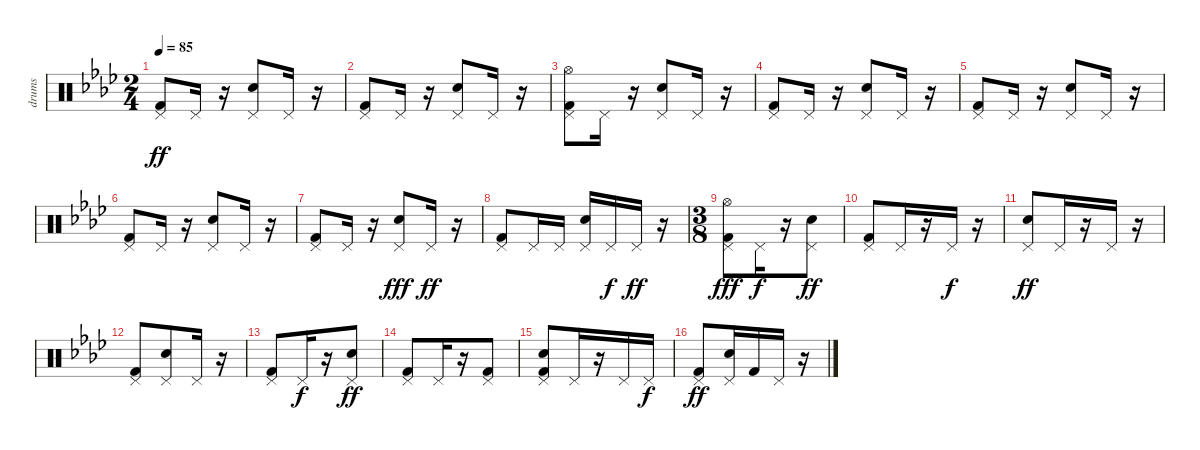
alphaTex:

\track ("drums" "drums") {instrument percussion}
\staff {score}
\articulation defaults
\ts (2 4)
\tempo 85
\clef neutral
\ks fminor
("Kick (hit) 2" "Pedal Hi-Hat (hit)").8{dy ff} "Pedal Hi-Hat (hit)".16 r.16 ("Electric Snare (hit)" "Pedal Hi-Hat (hit)").8 "Pedal Hi-Hat (hit)".16 r.16 |
("Pedal Hi-Hat (hit)" "Kick (hit) 2").8 "Pedal Hi-Hat (hit)".16 r.16 ("Pedal Hi-Hat (hit)" "Electric Snare (hit)").8 "Pedal Hi-Hat (hit)".16 r.16 |
("Hi-Hat (open)" "Kick (hit) 2" "Pedal Hi-Hat (hit)").8 "Pedal Hi-Hat (hit)".16 r.16 ("Electric Snare (hit)" "Pedal Hi-Hat (hit)").8 "Pedal Hi-Hat (hit)".16 r.16 |
("Kick (hit) 2" "Pedal Hi-Hat (hit)").8 "Pedal Hi-Hat (hit)".16 r.16 ("Electric Snare (hit)" "Pedal Hi-Hat (hit)").8 "Pedal Hi-Hat (hit)".16 r.16 |
("Pedal Hi-Hat (hit)" "Kick (hit) 2").8 "Pedal Hi-Hat (hit)".16 r.16 ("Pedal Hi-Hat (hit)" "Electric Snare (hit)").8 "Pedal Hi-Hat (hit)".16 r.16 |
("Kick (hit) 2" "Pedal Hi-Hat (hit)").8 "Pedal Hi-Hat (hit)".16 r.16 ("Electric Snare (hit)" "Pedal Hi-Hat (hit)").8 "Pedal Hi-Hat (hit)".16 r.16 |
("Pedal Hi-Hat (hit)" "Kick (hit) 2").8 "Pedal Hi-Hat (hit)".16 r.16 ("Pedal Hi-Hat (hit)" "Electric Snare (hit)").8{dy fff} "Pedal Hi-Hat (hit)".16{dy ff} r.16 |
("Kick (hit) 2" "Pedal Hi-Hat (hit)").8 "Pedal Hi-Hat (hit)".16 "Pedal Hi-Hat (hit)".16 ("Electric Snare (hit)" "Pedal Hi-Hat (hit)").16 "Pedal Hi-Hat (hit)".16{dy f} "Pedal Hi-Hat (hit)".16{dy ff} r.16 |
\ts (3 8)
("Kick (hit) 2" "Pedal Hi-Hat (hit)" "Hi-Hat (open)").8{dy fff} "Pedal Hi-Hat (hit)".16{dy f} r.16 ("Electric Snare (hit)" "Pedal Hi-Hat (hit)").8{dy ff} |
("Kick (hit) 2" "Pedal Hi-Hat (hit)").8 "Pedal Hi-Hat (hit)".16 r.16 "Pedal Hi-Hat (hit)".16{dy f} r.16 |
("Electric Snare (hit)" "Pedal Hi-Hat (hit)").8{dy ff} "Pedal Hi-Hat (hit)".16 r.16 "Pedal Hi-Hat (hit)".16 r.16 |
("Pedal Hi-Hat (hit)" "Kick (hit) 2").8 ("Electric Snare (hit)" "Pedal Hi-Hat (hit)").8 "Pedal Hi-Hat (hit)".16 r.16 |
("Pedal Hi-Hat (hit)" "Kick (hit) 2").8 "Pedal Hi-Hat (hit)".16{dy f} r.16 ("Electric Snare (hit)" "Pedal Hi-Hat (hit)").8{dy ff} |
("Kick (hit) 2" "Pedal Hi-Hat (hit)").8 "Pedal Hi-Hat (hit)".16 r.16 ("Kick (hit) 2" "Pedal Hi-Hat (hit)").8 |
("Electric Snare (hit)" "Kick (hit) 2" "Pedal Hi-Hat (hit)").8 "Pedal Hi-Hat (hit)".16 r.16 "Pedal Hi-Hat (hit)".16 "Pedal Hi-Hat (hit)".16{dy f} |
("Kick (hit) 2" "Pedal Hi-Hat (hit)").8{dy ff} ("Pedal Hi-Hat (hit)" "Electric Snare (hit)").16 "Kick (hit) 2".16 "Pedal Hi-Hat (hit)".16 r.16
